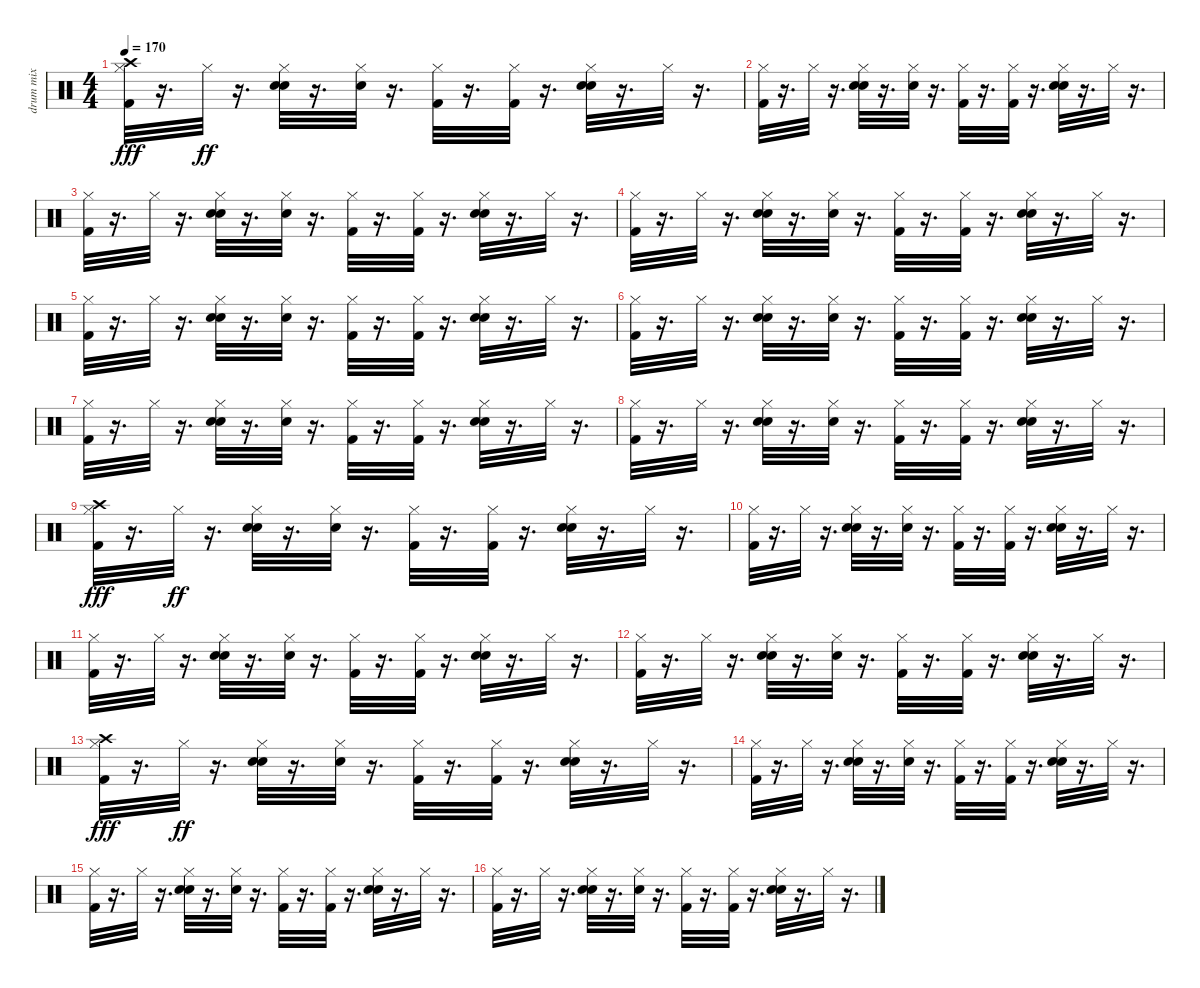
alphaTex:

\track ("drum mix" "drum mix") {instrument percussion}
\staff {score}
\articulation defaults
\ts (4 4)
\tempo 170
\clef neutral
\ks c
("Kick (hit) 2" "Hi-Hat (closed)" "Crash high (hit)").32{dy fff} r.16{d} "Hi-Hat (closed)".32{dy ff} r.16{d} ("Snare (hit) 2" "Hand Clap (hit)" "Hi-Hat (closed)").32 r.16{d} ("Snare (hit) 2" "Hi-Hat (closed)").32 r.16{d} ("Kick (hit) 2" "Hi-Hat (closed)").32 r.16{d} ("Kick (hit) 2" "Hi-Hat (closed)").32 r.16{d} ("Snare (hit) 2" "Hand Clap (hit)" "Hi-Hat (closed)").32 r.16{d} "Hi-Hat (closed)".32 r.16{d} |
("Kick (hit) 2" "Hi-Hat (closed)").32 r.16{d} "Hi-Hat (closed)".32 r.16{d} ("Snare (hit) 2" "Hand Clap (hit)" "Hi-Hat (closed)").32 r.16{d} ("Snare (hit) 2" "Hi-Hat (closed)").32 r.16{d} ("Kick (hit) 2" "Hi-Hat (closed)").32 r.16{d} ("Kick (hit) 2" "Hi-Hat (closed)").32 r.16{d} ("Snare (hit) 2" "Hand Clap (hit)" "Hi-Hat (closed)").32 r.16{d} "Hi-Hat (closed)".32 r.16{d} |
("Kick (hit) 2" "Hi-Hat (closed)").32 r.16{d} "Hi-Hat (closed)".32 r.16{d} ("Snare (hit) 2" "Hand Clap (hit)" "Hi-Hat (closed)").32 r.16{d} ("Snare (hit) 2" "Hi-Hat (closed)").32 r.16{d} ("Kick (hit) 2" "Hi-Hat (closed)").32 r.16{d} ("Kick (hit) 2" "Hi-Hat (closed)").32 r.16{d} ("Snare (hit) 2" "Hand Clap (hit)" "Hi-Hat (closed)").32 r.16{d} "Hi-Hat (closed)".32 r.16{d} |
("Kick (hit) 2" "Hi-Hat (closed)").32 r.16{d} "Hi-Hat (closed)".32 r.16{d} ("Snare (hit) 2" "Hand Clap (hit)" "Hi-Hat (closed)").32 r.16{d} ("Snare (hit) 2" "Hi-Hat (closed)").32 r.16{d} ("Kick (hit) 2" "Hi-Hat (closed)").32 r.16{d} ("Kick (hit) 2" "Hi-Hat (closed)").32 r.16{d} ("Snare (hit) 2" "Hand Clap (hit)" "Hi-Hat (closed)").32 r.16{d} "Hi-Hat (closed)".32 r.16{d} |
("Kick (hit) 2" "Hi-Hat (closed)").32 r.16{d} "Hi-Hat (closed)".32 r.16{d} ("Snare (hit) 2" "Hand Clap (hit)" "Hi-Hat (closed)").32 r.16{d} ("Snare (hit) 2" "Hi-Hat (closed)").32 r.16{d} ("Kick (hit) 2" "Hi-Hat (closed)").32 r.16{d} ("Kick (hit) 2" "Hi-Hat (closed)").32 r.16{d} ("Snare (hit) 2" "Hand Clap (hit)" "Hi-Hat (closed)").32 r.16{d} "Hi-Hat (closed)".32 r.16{d} |
("Kick (hit) 2" "Hi-Hat (closed)").32 r.16{d} "Hi-Hat (closed)".32 r.16{d} ("Snare (hit) 2" "Hand Clap (hit)" "Hi-Hat (closed)").32 r.16{d} ("Snare (hit) 2" "Hi-Hat (closed)").32 r.16{d} ("Kick (hit) 2" "Hi-Hat (closed)").32 r.16{d} ("Kick (hit) 2" "Hi-Hat (closed)").32 r.16{d} ("Snare (hit) 2" "Hand Clap (hit)" "Hi-Hat (closed)").32 r.16{d} "Hi-Hat (closed)".32 r.16{d} |
("Kick (hit) 2" "Hi-Hat (closed)").32 r.16{d} "Hi-Hat (closed)".32 r.16{d} ("Snare (hit) 2" "Hand Clap (hit)" "Hi-Hat (closed)").32 r.16{d} ("Snare (hit) 2" "Hi-Hat (closed)").32 r.16{d} ("Kick (hit) 2" "Hi-Hat (closed)").32 r.16{d} ("Kick (hit) 2" "Hi-Hat (closed)").32 r.16{d} ("Snare (hit) 2" "Hand Clap (hit)" "Hi-Hat (closed)").32 r.16{d} "Hi-Hat (closed)".32 r.16{d} |
("Kick (hit) 2" "Hi-Hat (closed)").32 r.16{d} "Hi-Hat (closed)".32 r.16{d} ("Snare (hit) 2" "Hand Clap (hit)" "Hi-Hat (closed)").32 r.16{d} ("Snare (hit) 2" "Hi-Hat (closed)").32 r.16{d} ("Kick (hit) 2" "Hi-Hat (closed)").32 r.16{d} ("Kick (hit) 2" "Hi-Hat (closed)").32 r.16{d} ("Snare (hit) 2" "Hand Clap (hit)" "Hi-Hat (closed)").32 r.16{d} "Hi-Hat (closed)".32 r.16{d} |
("Kick (hit) 2" "Hi-Hat (closed)" "Crash high (hit)").32{dy fff} r.16{d} "Hi-Hat (closed)".32{dy ff} r.16{d} ("Snare (hit) 2" "Hand Clap (hit)" "Hi-Hat (closed)").32 r.16{d} ("Snare (hit) 2" "Hi-Hat (closed)").32 r.16{d} ("Kick (hit) 2" "Hi-Hat (closed)").32 r.16{d} ("Kick (hit) 2" "Hi-Hat (closed)").32 r.16{d} ("Snare (hit) 2" "Hand Clap (hit)" "Hi-Hat (closed)").32 r.16{d} "Hi-Hat (closed)".32 r.16{d} |
("Kick (hit) 2" "Hi-Hat (closed)").32 r.16{d} "Hi-Hat (closed)".32 r.16{d} ("Snare (hit) 2" "Hand Clap (hit)" "Hi-Hat (closed)").32 r.16{d} ("Snare (hit) 2" "Hi-Hat (closed)").32 r.16{d} ("Kick (hit) 2" "Hi-Hat (closed)").32 r.16{d} ("Kick (hit) 2" "Hi-Hat (closed)").32 r.16{d} ("Snare (hit) 2" "Hand Clap (hit)" "Hi-Hat (closed)").32 r.16{d} "Hi-Hat (closed)".32 r.16{d} |
("Kick (hit) 2" "Hi-Hat (closed)").32 r.16{d} "Hi-Hat (closed)".32 r.16{d} ("Snare (hit) 2" "Hand Clap (hit)" "Hi-Hat (closed)").32 r.16{d} ("Snare (hit) 2" "Hi-Hat (closed)").32 r.16{d} ("Kick (hit) 2" "Hi-Hat (closed)").32 r.16{d} ("Kick (hit) 2" "Hi-Hat (closed)").32 r.16{d} ("Snare (hit) 2" "Hand Clap (hit)" "Hi-Hat (closed)").32 r.16{d} "Hi-Hat (closed)".32 r.16{d} |
("Kick (hit) 2" "Hi-Hat (closed)").32 r.16{d} "Hi-Hat (closed)".32 r.16{d} ("Snare (hit) 2" "Hand Clap (hit)" "Hi-Hat (closed)").32 r.16{d} ("Snare (hit) 2" "Hi-Hat (closed)").32 r.16{d} ("Kick (hit) 2" "Hi-Hat (closed)").32 r.16{d} ("Kick (hit) 2" "Hi-Hat (closed)").32 r.16{d} ("Snare (hit) 2" "Hand Clap (hit)" "Hi-Hat (closed)").32 r.16{d} "Hi-Hat (closed)".32 r.16{d} |
("Kick (hit) 2" "Hi-Hat (closed)" "Crash high (hit)").32{dy fff} r.16{d} "Hi-Hat (closed)".32{dy ff} r.16{d} ("Snare (hit) 2" "Hand Clap (hit)" "Hi-Hat (closed)").32 r.16{d} ("Snare (hit) 2" "Hi-Hat (closed)").32 r.16{d} ("Kick (hit) 2" "Hi-Hat (closed)").32 r.16{d} ("Kick (hit) 2" "Hi-Hat (closed)").32 r.16{d} ("Snare (hit) 2" "Hand Clap (hit)" "Hi-Hat (closed)").32 r.16{d} "Hi-Hat (closed)".32 r.16{d} |
("Kick (hit) 2" "Hi-Hat (closed)").32 r.16{d} "Hi-Hat (closed)".32 r.16{d} ("Snare (hit) 2" "Hand Clap (hit)" "Hi-Hat (closed)").32 r.16{d} ("Snare (hit) 2" "Hi-Hat (closed)").32 r.16{d} ("Kick (hit) 2" "Hi-Hat (closed)").32 r.16{d} ("Kick (hit) 2" "Hi-Hat (closed)").32 r.16{d} ("Snare (hit) 2" "Hand Clap (hit)" "Hi-Hat (closed)").32 r.16{d} "Hi-Hat (closed)".32 r.16{d} |
("Kick (hit) 2" "Hi-Hat (closed)").32 r.16{d} "Hi-Hat (closed)".32 r.16{d} ("Snare (hit) 2" "Hand Clap (hit)" "Hi-Hat (closed)").32 r.16{d} ("Snare (hit) 2" "Hi-Hat (closed)").32 r.16{d} ("Kick (hit) 2" "Hi-Hat (closed)").32 r.16{d} ("Kick (hit) 2" "Hi-Hat (closed)").32 r.16{d} ("Snare (hit) 2" "Hand Clap (hit)" "Hi-Hat (closed)").32 r.16{d} "Hi-Hat (closed)".32 r.16{d} |
("Kick (hit) 2" "Hi-Hat (closed)").32 r.16{d} "Hi-Hat (closed)".32 r.16{d} ("Snare (hit) 2" "Hand Clap (hit)" "Hi-Hat (closed)").32 r.16{d} ("Snare (hit) 2" "Hi-Hat (closed)").32 r.16{d} ("Kick (hit) 2" "Hi-Hat (closed)").32 r.16{d} ("Kick (hit) 2" "Hi-Hat (closed)").32 r.16{d} ("Snare (hit) 2" "Hand Clap (hit)" "Hi-Hat (closed)").32 r.16{d} "Hi-Hat (closed)".32 r.16{d}
